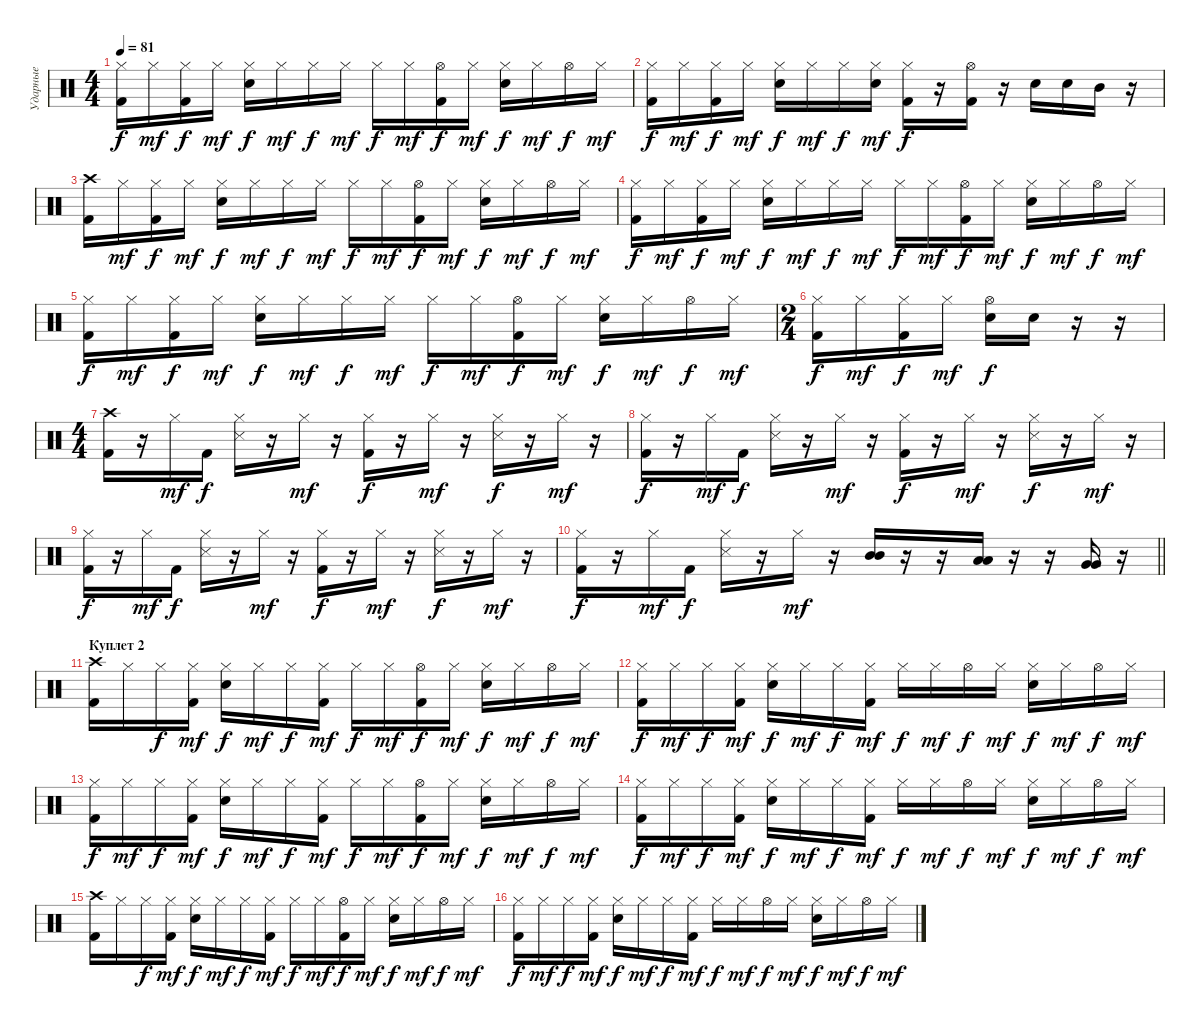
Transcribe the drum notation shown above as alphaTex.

\track ("Ударные" "Ударные") {instrument percussion}
\staff {score}
\articulation defaults
\ts (4 4)
\tempo 81
\clef neutral
\ks c
("Hi-Hat (closed)" "Kick (hit) 2").16{dy f} "Hi-Hat (closed)".16{dy mf} ("Hi-Hat (closed)" "Kick (hit) 2").16{dy f} "Hi-Hat (closed)".16{dy mf} ("Hi-Hat (closed)" "Electric Snare (hit)").16{dy f} "Hi-Hat (closed)".16{dy mf} "Hi-Hat (closed)".16{dy f} "Hi-Hat (closed)".16{dy mf} "Hi-Hat (closed)".16{dy f} "Hi-Hat (closed)".16{dy mf} ("Hi-Hat (open)" "Kick (hit) 2").16{dy f} "Hi-Hat (closed)".16{dy mf} ("Hi-Hat (closed)" "Electric Snare (hit)").16{dy f} "Hi-Hat (closed)".16{dy mf} "Hi-Hat (open)".16{dy f} "Hi-Hat (closed)".16{dy mf} |
("Hi-Hat (closed)" "Kick (hit) 2").16{dy f} "Hi-Hat (closed)".16{dy mf} ("Hi-Hat (closed)" "Kick (hit) 2").16{dy f} "Hi-Hat (closed)".16{dy mf} ("Hi-Hat (closed)" "Electric Snare (hit)").16{dy f} "Hi-Hat (closed)".16{dy mf} "Hi-Hat (closed)".16{dy f} ("Hi-Hat (closed)" "Electric Snare (hit)").16{dy mf} ("Hi-Hat (closed)" "Kick (hit) 2").16{dy f} r.16 ("Hi-Hat (open)" "Kick (hit) 2").16 r.16 "Electric Snare (hit)".16 "Electric Snare (hit)".16 "Mid Tom (hit)".16 r.16 |
("Crash high (hit)" "Kick (hit) 2").16 "Hi-Hat (closed)".16{dy mf} ("Hi-Hat (closed)" "Kick (hit) 2").16{dy f} "Hi-Hat (closed)".16{dy mf} ("Hi-Hat (closed)" "Electric Snare (hit)").16{dy f} "Hi-Hat (closed)".16{dy mf} "Hi-Hat (closed)".16{dy f} "Hi-Hat (closed)".16{dy mf} "Hi-Hat (closed)".16{dy f} "Hi-Hat (closed)".16{dy mf} ("Hi-Hat (open)" "Kick (hit) 2").16{dy f} "Hi-Hat (closed)".16{dy mf} ("Hi-Hat (closed)" "Electric Snare (hit)").16{dy f} "Hi-Hat (closed)".16{dy mf} "Hi-Hat (open)".16{dy f} "Hi-Hat (closed)".16{dy mf} |
("Hi-Hat (closed)" "Kick (hit) 2").16{dy f} "Hi-Hat (closed)".16{dy mf} ("Hi-Hat (closed)" "Kick (hit) 2").16{dy f} "Hi-Hat (closed)".16{dy mf} ("Hi-Hat (closed)" "Electric Snare (hit)").16{dy f} "Hi-Hat (closed)".16{dy mf} "Hi-Hat (closed)".16{dy f} "Hi-Hat (closed)".16{dy mf} "Hi-Hat (closed)".16{dy f} "Hi-Hat (closed)".16{dy mf} ("Hi-Hat (open)" "Kick (hit) 2").16{dy f} "Hi-Hat (closed)".16{dy mf} ("Hi-Hat (closed)" "Electric Snare (hit)").16{dy f} "Hi-Hat (closed)".16{dy mf} "Hi-Hat (open)".16{dy f} "Hi-Hat (closed)".16{dy mf} |
("Hi-Hat (closed)" "Kick (hit) 2").16{dy f} "Hi-Hat (closed)".16{dy mf} ("Hi-Hat (closed)" "Kick (hit) 2").16{dy f} "Hi-Hat (closed)".16{dy mf} ("Hi-Hat (closed)" "Electric Snare (hit)").16{dy f} "Hi-Hat (closed)".16{dy mf} "Hi-Hat (closed)".16{dy f} "Hi-Hat (closed)".16{dy mf} "Hi-Hat (closed)".16{dy f} "Hi-Hat (closed)".16{dy mf} ("Hi-Hat (open)" "Kick (hit) 2").16{dy f} "Hi-Hat (closed)".16{dy mf} ("Hi-Hat (closed)" "Electric Snare (hit)").16{dy f} "Hi-Hat (closed)".16{dy mf} "Hi-Hat (open)".16{dy f} "Hi-Hat (closed)".16{dy mf} |
\ts (2 4)
("Hi-Hat (closed)" "Kick (hit) 2").16{dy f} "Hi-Hat (closed)".16{dy mf} ("Hi-Hat (closed)" "Kick (hit) 2").16{dy f} "Hi-Hat (closed)".16{dy mf} ("Hi-Hat (open)" "Electric Snare (hit)").16{dy f} "Electric Snare (hit)".16 r.16 r.16 |
\ts (4 4)
("Crash high (hit)" "Kick (hit) 2").16 r.16 "Hi-Hat (closed)".16{dy mf} "Kick (hit) 2".16{dy f} ("Hi-Hat (closed)" "Snare (side stick) 3").16 r.16 "Hi-Hat (closed)".16{dy mf} r.16 ("Hi-Hat (closed)" "Kick (hit) 2").16{dy f} r.16 "Hi-Hat (closed)".16{dy mf} r.16 ("Hi-Hat (closed)" "Snare (side stick) 3").16{dy f} r.16 "Hi-Hat (closed)".16{dy mf} r.16 |
("Hi-Hat (closed)" "Kick (hit) 2").16{dy f} r.16 "Hi-Hat (closed)".16{dy mf} "Kick (hit) 2".16{dy f} ("Hi-Hat (closed)" "Snare (side stick) 3").16 r.16 "Hi-Hat (closed)".16{dy mf} r.16 ("Hi-Hat (closed)" "Kick (hit) 2").16{dy f} r.16 "Hi-Hat (closed)".16{dy mf} r.16 ("Hi-Hat (closed)" "Snare (side stick) 3").16{dy f} r.16 "Hi-Hat (closed)".16{dy mf} r.16 |
("Hi-Hat (closed)" "Kick (hit) 2").16{dy f} r.16 "Hi-Hat (closed)".16{dy mf} "Kick (hit) 2".16{dy f} ("Hi-Hat (closed)" "Snare (side stick) 3").16 r.16 "Hi-Hat (closed)".16{dy mf} r.16 ("Hi-Hat (closed)" "Kick (hit) 2").16{dy f} r.16 "Hi-Hat (closed)".16{dy mf} r.16 ("Hi-Hat (closed)" "Snare (side stick) 3").16{dy f} r.16 "Hi-Hat (closed)".16{dy mf} r.16 |
\barLineRight lightlight
("Hi-Hat (closed)" "Kick (hit) 2").16{dy f} r.16 "Hi-Hat (closed)".16{dy mf} "Kick (hit) 2".16{dy f} ("Hi-Hat (closed)" "Snare (side stick) 3").16 r.16 "Hi-Hat (closed)".16{dy mf} r.16 ("Mid Tom (hit)" "Mid Tom (hit)").16{bd 30} r.16 r.16 ("Low Tom (hit)" "Low Tom (hit)").16{bd 30} r.16 r.16 ("Very Low Tom (hit)" "Very Low Tom (hit)").16{bd 60} r.16 |
\section ("" "Куплет 2")
("Crash high (hit)" "Kick (hit) 2").16 "Hi-Hat (closed)".16 "Hi-Hat (closed)".16{dy f} ("Hi-Hat (closed)" "Kick (hit) 2").16{dy mf} ("Hi-Hat (closed)" "Electric Snare (hit)").16{dy f} "Hi-Hat (closed)".16{dy mf} "Hi-Hat (closed)".16{dy f} ("Hi-Hat (closed)" "Kick (hit) 2").16{dy mf} "Hi-Hat (closed)".16{dy f} "Hi-Hat (closed)".16{dy mf} ("Hi-Hat (open)" "Kick (hit) 2").16{dy f} "Hi-Hat (closed)".16{dy mf} ("Hi-Hat (closed)" "Electric Snare (hit)").16{dy f} "Hi-Hat (closed)".16{dy mf} "Hi-Hat (open)".16{dy f} "Hi-Hat (closed)".16{dy mf} |
("Hi-Hat (closed)" "Kick (hit) 2").16{dy f} "Hi-Hat (closed)".16{dy mf} "Hi-Hat (closed)".16{dy f} ("Hi-Hat (closed)" "Kick (hit) 2").16{dy mf} ("Hi-Hat (closed)" "Electric Snare (hit)").16{dy f} "Hi-Hat (closed)".16{dy mf} "Hi-Hat (closed)".16{dy f} ("Hi-Hat (closed)" "Kick (hit) 2").16{dy mf} "Hi-Hat (closed)".16{dy f} "Hi-Hat (closed)".16{dy mf} "Hi-Hat (open)".16{dy f} "Hi-Hat (closed)".16{dy mf} ("Hi-Hat (closed)" "Electric Snare (hit)").16{dy f} "Hi-Hat (closed)".16{dy mf} "Hi-Hat (open)".16{dy f} "Hi-Hat (closed)".16{dy mf} |
("Hi-Hat (closed)" "Kick (hit) 2").16{dy f} "Hi-Hat (closed)".16{dy mf} "Hi-Hat (closed)".16{dy f} ("Hi-Hat (closed)" "Kick (hit) 2").16{dy mf} ("Hi-Hat (closed)" "Electric Snare (hit)").16{dy f} "Hi-Hat (closed)".16{dy mf} "Hi-Hat (closed)".16{dy f} ("Hi-Hat (closed)" "Kick (hit) 2").16{dy mf} "Hi-Hat (closed)".16{dy f} "Hi-Hat (closed)".16{dy mf} ("Hi-Hat (open)" "Kick (hit) 2").16{dy f} "Hi-Hat (closed)".16{dy mf} ("Hi-Hat (closed)" "Electric Snare (hit)").16{dy f} "Hi-Hat (closed)".16{dy mf} "Hi-Hat (open)".16{dy f} "Hi-Hat (closed)".16{dy mf} |
("Hi-Hat (closed)" "Kick (hit) 2").16{dy f} "Hi-Hat (closed)".16{dy mf} "Hi-Hat (closed)".16{dy f} ("Hi-Hat (closed)" "Kick (hit) 2").16{dy mf} ("Hi-Hat (closed)" "Electric Snare (hit)").16{dy f} "Hi-Hat (closed)".16{dy mf} "Hi-Hat (closed)".16{dy f} ("Hi-Hat (closed)" "Kick (hit) 2").16{dy mf} "Hi-Hat (closed)".16{dy f} "Hi-Hat (closed)".16{dy mf} "Hi-Hat (open)".16{dy f} "Hi-Hat (closed)".16{dy mf} ("Hi-Hat (closed)" "Electric Snare (hit)").16{dy f} "Hi-Hat (closed)".16{dy mf} "Hi-Hat (open)".16{dy f} "Hi-Hat (closed)".16{dy mf} |
("Crash high (hit)" "Kick (hit) 2").16 "Hi-Hat (closed)".16 "Hi-Hat (closed)".16{dy f} ("Hi-Hat (closed)" "Kick (hit) 2").16{dy mf} ("Hi-Hat (closed)" "Electric Snare (hit)").16{dy f} "Hi-Hat (closed)".16{dy mf} "Hi-Hat (closed)".16{dy f} ("Hi-Hat (closed)" "Kick (hit) 2").16{dy mf} "Hi-Hat (closed)".16{dy f} "Hi-Hat (closed)".16{dy mf} ("Hi-Hat (open)" "Kick (hit) 2").16{dy f} "Hi-Hat (closed)".16{dy mf} ("Hi-Hat (closed)" "Electric Snare (hit)").16{dy f} "Hi-Hat (closed)".16{dy mf} "Hi-Hat (open)".16{dy f} "Hi-Hat (closed)".16{dy mf} |
("Hi-Hat (closed)" "Kick (hit) 2").16{dy f} "Hi-Hat (closed)".16{dy mf} "Hi-Hat (closed)".16{dy f} ("Hi-Hat (closed)" "Kick (hit) 2").16{dy mf} ("Hi-Hat (closed)" "Electric Snare (hit)").16{dy f} "Hi-Hat (closed)".16{dy mf} "Hi-Hat (closed)".16{dy f} ("Hi-Hat (closed)" "Kick (hit) 2").16{dy mf} "Hi-Hat (closed)".16{dy f} "Hi-Hat (closed)".16{dy mf} "Hi-Hat (open)".16{dy f} "Hi-Hat (closed)".16{dy mf} ("Hi-Hat (closed)" "Electric Snare (hit)").16{dy f} "Hi-Hat (closed)".16{dy mf} "Hi-Hat (open)".16{dy f} "Hi-Hat (closed)".16{dy mf}
